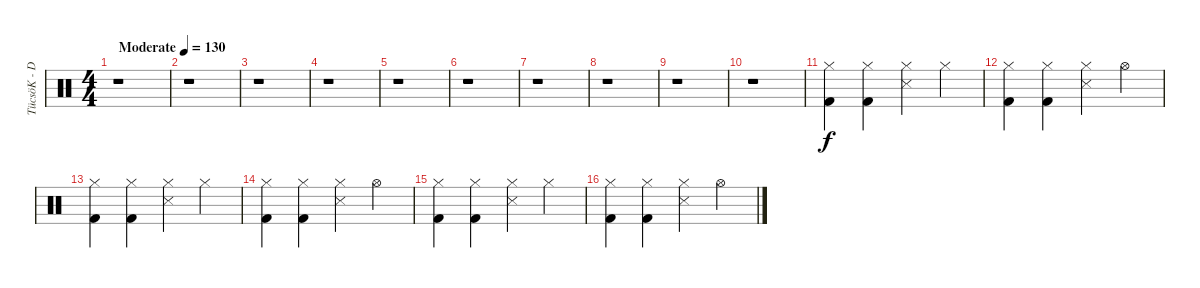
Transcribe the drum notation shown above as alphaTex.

\track ("TücsöK - Dob" "TücsöK - D") {instrument percussion}
\staff {score}
\articulation defaults
\ts (4 4)
\tempo (130 "Moderate")
\clef neutral
\ks c
r.1{dy f} |
r.1 |
r.1 |
r.1 |
r.1 |
r.1 |
r.1 |
r.1 |
r.1 |
r.1 |
("Hi-Hat (closed)" "Kick (hit) 2").4 ("Hi-Hat (closed)" "Kick (hit) 2").4 ("Hi-Hat (closed)" "Snare (side stick) 3").4 "Hi-Hat (closed)".4 |
("Hi-Hat (closed)" "Kick (hit) 2").4 ("Hi-Hat (closed)" "Kick (hit) 2").4 ("Hi-Hat (closed)" "Snare (side stick) 3").4 "Hi-Hat (open)".4 |
("Hi-Hat (closed)" "Kick (hit) 2").4 ("Hi-Hat (closed)" "Kick (hit) 2").4 ("Hi-Hat (closed)" "Snare (side stick) 3").4 "Hi-Hat (closed)".4 |
("Hi-Hat (closed)" "Kick (hit) 2").4 ("Hi-Hat (closed)" "Kick (hit) 2").4 ("Hi-Hat (closed)" "Snare (side stick) 3").4 "Hi-Hat (open)".4 |
("Hi-Hat (closed)" "Kick (hit) 2").4 ("Hi-Hat (closed)" "Kick (hit) 2").4 ("Hi-Hat (closed)" "Snare (side stick) 3").4 "Hi-Hat (closed)".4 |
("Hi-Hat (closed)" "Kick (hit) 2").4 ("Hi-Hat (closed)" "Kick (hit) 2").4 ("Hi-Hat (closed)" "Snare (side stick) 3").4 "Hi-Hat (open)".4
